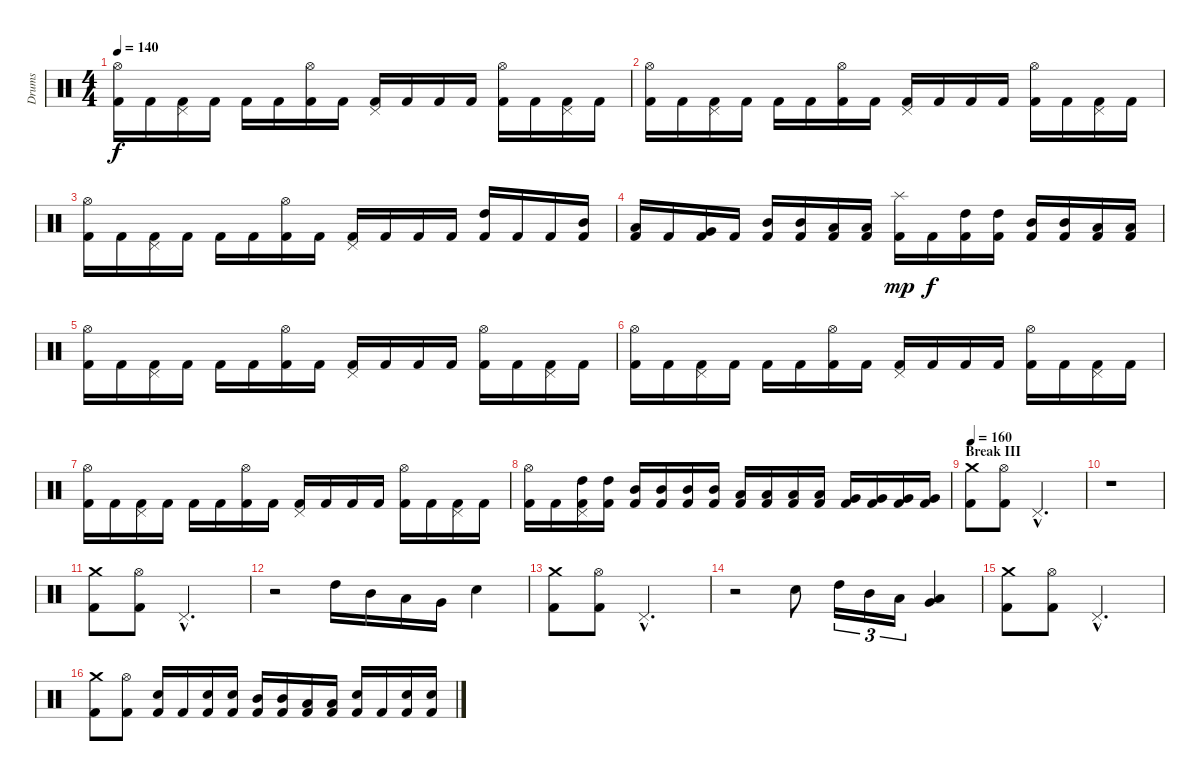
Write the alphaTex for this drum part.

\track ("Drums" "Drums") {instrument percussion}
\staff {score}
\articulation defaults
\ts (4 4)
\tempo 140
\clef neutral
\ks c
("Kick (hit) 2" "Hi-Hat (open)").16{dy f} "Kick (hit) 2".16 ("Kick (hit) 2" "Pedal Hi-Hat (hit)").16 "Kick (hit) 2".16 "Kick (hit) 2".16 "Kick (hit) 2".16 ("Kick (hit) 2" "Hi-Hat (open)").16 "Kick (hit) 2".16 ("Kick (hit) 2" "Pedal Hi-Hat (hit)").16 "Kick (hit) 2".16 "Kick (hit) 2".16 "Kick (hit) 2".16 ("Kick (hit) 2" "Hi-Hat (open)").16 "Kick (hit) 2".16 ("Kick (hit) 2" "Pedal Hi-Hat (hit)").16 "Kick (hit) 2".16 |
("Kick (hit) 2" "Hi-Hat (open)").16 "Kick (hit) 2".16 ("Kick (hit) 2" "Pedal Hi-Hat (hit)").16 "Kick (hit) 2".16 "Kick (hit) 2".16 "Kick (hit) 2".16 ("Kick (hit) 2" "Hi-Hat (open)").16 "Kick (hit) 2".16 ("Kick (hit) 2" "Pedal Hi-Hat (hit)").16 "Kick (hit) 2".16 "Kick (hit) 2".16 "Kick (hit) 2".16 ("Kick (hit) 2" "Hi-Hat (open)").16 "Kick (hit) 2".16 ("Kick (hit) 2" "Pedal Hi-Hat (hit)").16 "Kick (hit) 2".16 |
("Kick (hit) 2" "Hi-Hat (open)").16 "Kick (hit) 2".16 ("Kick (hit) 2" "Pedal Hi-Hat (hit)").16 "Kick (hit) 2".16 "Kick (hit) 2".16 "Kick (hit) 2".16 ("Kick (hit) 2" "Hi-Hat (open)").16 "Kick (hit) 2".16 ("Kick (hit) 2" "Pedal Hi-Hat (hit)").16 "Kick (hit) 2".16 "Kick (hit) 2".16 "Kick (hit) 2".16 ("Kick (hit) 2" "High Tom (hit)").16 "Kick (hit) 2".16 "Kick (hit) 2".16 ("Kick (hit) 2" "Mid Tom (hit)").16 |
("Kick (hit) 2" "Low Tom (hit)").16 "Kick (hit) 2".16 ("Kick (hit) 2" "Very Low Tom (hit)").16 "Kick (hit) 2".16 ("Kick (hit) 2" "Mid Tom (hit)").16 ("Kick (hit) 2" "Mid Tom (hit)").16 ("Kick (hit) 2" "Low Tom (hit)").16 ("Kick (hit) 2" "Low Tom (hit)").16 ("Kick (hit) 2" "Splash (hit)").16{dy mp} "Kick (hit) 2".16{dy f} ("Kick (hit) 2" "High Tom (hit)").16 ("Kick (hit) 2" "High Tom (hit)").16 ("Kick (hit) 2" "Mid Tom (hit)").16 ("Kick (hit) 2" "Mid Tom (hit)").16 ("Kick (hit) 2" "Low Tom (hit)").16 ("Kick (hit) 2" "Low Tom (hit)").16 |
("Kick (hit) 2" "Hi-Hat (open)").16 "Kick (hit) 2".16 ("Kick (hit) 2" "Pedal Hi-Hat (hit)").16 "Kick (hit) 2".16 "Kick (hit) 2".16 "Kick (hit) 2".16 ("Kick (hit) 2" "Hi-Hat (open)").16 "Kick (hit) 2".16 ("Kick (hit) 2" "Pedal Hi-Hat (hit)").16 "Kick (hit) 2".16 "Kick (hit) 2".16 "Kick (hit) 2".16 ("Kick (hit) 2" "Hi-Hat (open)").16 "Kick (hit) 2".16 ("Kick (hit) 2" "Pedal Hi-Hat (hit)").16 "Kick (hit) 2".16 |
("Kick (hit) 2" "Hi-Hat (open)").16 "Kick (hit) 2".16 ("Kick (hit) 2" "Pedal Hi-Hat (hit)").16 "Kick (hit) 2".16 "Kick (hit) 2".16 "Kick (hit) 2".16 ("Kick (hit) 2" "Hi-Hat (open)").16 "Kick (hit) 2".16 ("Kick (hit) 2" "Pedal Hi-Hat (hit)").16 "Kick (hit) 2".16 "Kick (hit) 2".16 "Kick (hit) 2".16 ("Kick (hit) 2" "Hi-Hat (open)").16 "Kick (hit) 2".16 ("Kick (hit) 2" "Pedal Hi-Hat (hit)").16 "Kick (hit) 2".16 |
("Kick (hit) 2" "Hi-Hat (open)").16 "Kick (hit) 2".16 ("Kick (hit) 2" "Pedal Hi-Hat (hit)").16 "Kick (hit) 2".16 "Kick (hit) 2".16 "Kick (hit) 2".16 ("Kick (hit) 2" "Hi-Hat (open)").16 "Kick (hit) 2".16 ("Kick (hit) 2" "Pedal Hi-Hat (hit)").16 "Kick (hit) 2".16 "Kick (hit) 2".16 "Kick (hit) 2".16 ("Kick (hit) 2" "Hi-Hat (open)").16 "Kick (hit) 2".16 ("Kick (hit) 2" "Pedal Hi-Hat (hit)").16 "Kick (hit) 2".16 |
("Kick (hit) 2" "Hi-Hat (open)").16 "Kick (hit) 2".16 ("Kick (hit) 2" "High Tom (hit)" "Pedal Hi-Hat (hit)").16 ("Kick (hit) 2" "High Tom (hit)").16 ("Kick (hit) 2" "Mid Tom (hit)").16 ("Kick (hit) 2" "Mid Tom (hit)").16 ("Kick (hit) 2" "Mid Tom (hit)").16 ("Kick (hit) 2" "Mid Tom (hit)").16 ("Kick (hit) 2" "Low Tom (hit)").16 ("Kick (hit) 2" "Low Tom (hit)").16 ("Kick (hit) 2" "Low Tom (hit)").16 ("Kick (hit) 2" "Low Tom (hit)").16 ("Kick (hit) 2" "Very Low Tom (hit)").16 ("Kick (hit) 2" "Very Low Tom (hit)").16 ("Kick (hit) 2" "Very Low Tom (hit)").16 ("Kick (hit) 2" "Very Low Tom (hit)").16 |
\section ("" "Break III")
\tempo 160
("Kick (hit) 2" "Crash medium (hit)").8 ("Kick (hit) 2" "Hi-Hat (open)").8 "Pedal Hi-Hat (hit)"{hac}.2{d} |
r.1 |
("Kick (hit) 2" "Crash medium (hit)").8 ("Kick (hit) 2" "Hi-Hat (open)").8 "Pedal Hi-Hat (hit)"{hac}.2{d} |
r.2 "High Tom (hit)".16 "Mid Tom (hit)".16 "Low Tom (hit)".16 "Very Low Tom (hit)".16 "Electric Snare (hit)".4 |
("Kick (hit) 2" "Crash medium (hit)").8 ("Kick (hit) 2" "Hi-Hat (open)").8 "Pedal Hi-Hat (hit)"{hac}.2{d} |
r.2 "Electric Snare (hit)".8 "High Tom (hit)".16{tu (3 2)} "Mid Tom (hit)".16{tu (3 2)} "Low Tom (hit)".16{tu (3 2)} ("Low Tom (hit)" "Very Low Tom (hit)").4 |
("Kick (hit) 2" "Crash medium (hit)").8 ("Kick (hit) 2" "Hi-Hat (open)").8 "Pedal Hi-Hat (hit)"{hac}.2{d} |
("Kick (hit) 2" "Crash medium (hit)").8 ("Kick (hit) 2" "Hi-Hat (open)").8 ("Kick (hit) 2" "Electric Snare (hit)").16 "Kick (hit) 2".16 ("Kick (hit) 2" "Electric Snare (hit)").16 ("Kick (hit) 2" "Electric Snare (hit)").16 ("Kick (hit) 2" "Mid Tom (hit)").16 ("Kick (hit) 2" "Mid Tom (hit)").16 ("Kick (hit) 2" "Low Tom (hit)").16 ("Kick (hit) 2" "Low Tom (hit)").16 ("Kick (hit) 2" "Electric Snare (hit)").16 "Kick (hit) 2".16 ("Kick (hit) 2" "Electric Snare (hit)").16 ("Kick (hit) 2" "Electric Snare (hit)").16
